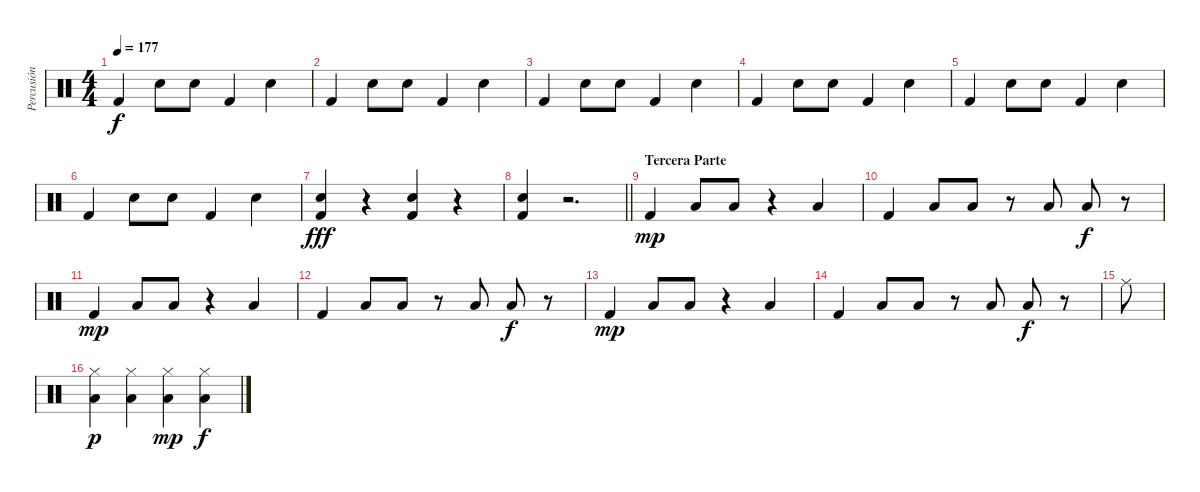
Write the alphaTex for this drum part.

\track ("Percusión" "Percusión") {instrument percussion}
\staff {score}
\articulation defaults
\ts (4 4)
\tempo 177
\clef neutral
\ks c "Kick (hit) 2".4{dy f balance 8} "Electric Snare (hit)".8 "Electric Snare (hit)".8 "Kick (hit) 2".4 "Electric Snare (hit)".4
|
"Kick (hit) 2".4 "Electric Snare (hit)".8 "Electric Snare (hit)".8 "Kick (hit) 2".4 "Electric Snare (hit)".4 |
"Kick (hit) 2".4 "Electric Snare (hit)".8 "Electric Snare (hit)".8 "Kick (hit) 2".4 "Electric Snare (hit)".4 |
"Kick (hit) 2".4 "Electric Snare (hit)".8 "Electric Snare (hit)".8 "Kick (hit) 2".4 "Electric Snare (hit)".4 |
"Kick (hit) 2".4 "Electric Snare (hit)".8 "Electric Snare (hit)".8 "Kick (hit) 2".4 "Electric Snare (hit)".4 |
"Kick (hit) 2".4 "Electric Snare (hit)".8 "Electric Snare (hit)".8 "Kick (hit) 2".4 "Electric Snare (hit)".4 |
("Snare (hit) 2" "Kick (hit) 2").4{dy fff} r.4 ("Snare (hit) 2" "Kick (hit) 2").4 r.4 |
\barLineRight lightlight
("Snare (hit) 2" "Kick (hit) 2").4 r.2{d} |
\section ("" "Tercera Parte")
"Kick (hit) 2".4{dy mp} "Low Floor Tom (hit)".8 "Low Floor Tom (hit)".8 r.4 "Low Floor Tom (hit)".4 |
"Kick (hit) 2".4 "Low Floor Tom (hit)".8 "Low Floor Tom (hit)".8 r.8 "Low Floor Tom (hit)".8 "Low Floor Tom (hit)".8{dy f} r.8 |
"Kick (hit) 2".4{dy mp} "Low Floor Tom (hit)".8 "Low Floor Tom (hit)".8 r.4 "Low Floor Tom (hit)".4 |
"Kick (hit) 2".4 "Low Floor Tom (hit)".8 "Low Floor Tom (hit)".8 r.8 "Low Floor Tom (hit)".8 "Low Floor Tom (hit)".8{dy f} r.8 |
"Kick (hit) 2".4{dy mp} "Low Floor Tom (hit)".8 "Low Floor Tom (hit)".8 r.4 "Low Floor Tom (hit)".4 |
"Kick (hit) 2".4 "Low Floor Tom (hit)".8 "Low Floor Tom (hit)".8 r.8 "Low Floor Tom (hit)".8 "Low Floor Tom (hit)".8{dy f} r.8 |
"Ride (middle)".8 |
("Hi-Hat (closed)" "Low Tom (hit)").4{dy p} ("Hi-Hat (closed)" "Low Tom (hit)").4 ("Hi-Hat (closed)" "Low Tom (hit)").4{dy mp} ("Hi-Hat (closed)" "Low Tom (hit)").4{dy f}
